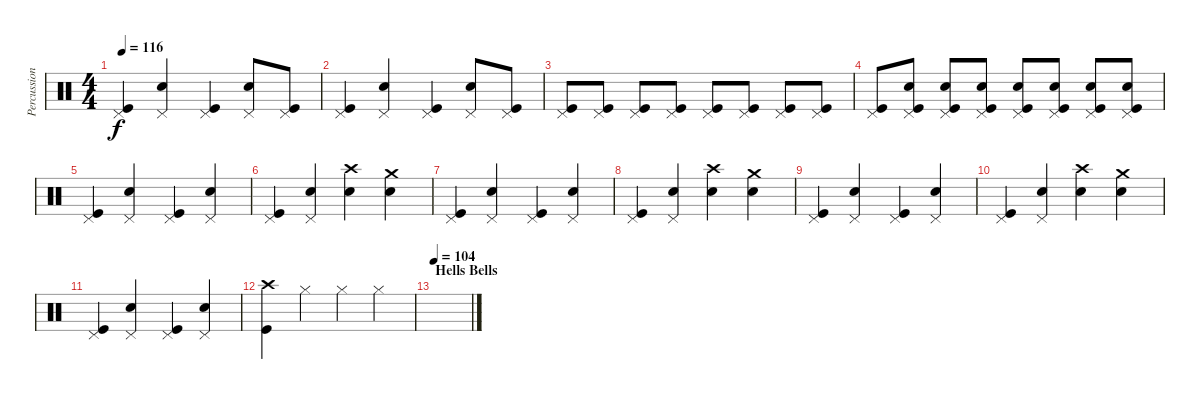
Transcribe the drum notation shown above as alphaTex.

\track ("Percussions" "Percussion") {instrument percussion}
\staff {score}
\articulation defaults
\ts (4 4)
\tempo 116
\clef neutral
\ks c
("Pedal Hi-Hat (hit)" "Kick (hit)").4{dy f} ("Pedal Hi-Hat (hit)" "Electric Snare (hit)").4 ("Pedal Hi-Hat (hit)" "Kick (hit)").4 ("Pedal Hi-Hat (hit)" "Electric Snare (hit)").8 ("Pedal Hi-Hat (hit)" "Kick (hit)").8 |
("Pedal Hi-Hat (hit)" "Kick (hit)").4 ("Pedal Hi-Hat (hit)" "Electric Snare (hit)").4 ("Pedal Hi-Hat (hit)" "Kick (hit)").4 ("Pedal Hi-Hat (hit)" "Electric Snare (hit)").8 ("Pedal Hi-Hat (hit)" "Kick (hit)").8 |
("Kick (hit)" "Pedal Hi-Hat (hit)").8 ("Kick (hit)" "Pedal Hi-Hat (hit)").8 ("Kick (hit)" "Pedal Hi-Hat (hit)").8 ("Kick (hit)" "Pedal Hi-Hat (hit)").8 ("Kick (hit)" "Pedal Hi-Hat (hit)").8 ("Pedal Hi-Hat (hit)" "Kick (hit)").8 ("Kick (hit)" "Pedal Hi-Hat (hit)").8 ("Pedal Hi-Hat (hit)" "Kick (hit)").8 |
("Pedal Hi-Hat (hit)" "Kick (hit)").8 ("Snare (hit) 2" "Pedal Hi-Hat (hit)" "Kick (hit)").8 ("Snare (hit) 2" "Pedal Hi-Hat (hit)" "Kick (hit)").8 ("Snare (hit) 2" "Pedal Hi-Hat (hit)" "Kick (hit)").8 ("Snare (hit) 2" "Pedal Hi-Hat (hit)" "Kick (hit)").8 ("Snare (hit) 2" "Pedal Hi-Hat (hit)" "Kick (hit)").8 ("Snare (hit) 2" "Pedal Hi-Hat (hit)" "Kick (hit)").8 ("Snare (hit) 2" "Pedal Hi-Hat (hit)" "Kick (hit)").8 |
("Pedal Hi-Hat (hit)" "Kick (hit)").4 ("Pedal Hi-Hat (hit)" "Electric Snare (hit)").4 ("Pedal Hi-Hat (hit)" "Kick (hit)").4 ("Pedal Hi-Hat (hit)" "Electric Snare (hit)").4 |
("Pedal Hi-Hat (hit)" "Kick (hit)").4 ("Pedal Hi-Hat (hit)" "Electric Snare (hit)").4 ("Electric Snare (hit)" "Crash high (hit)").4 ("Crash medium (hit)" "Electric Snare (hit)").4 |
("Pedal Hi-Hat (hit)" "Kick (hit)").4 ("Pedal Hi-Hat (hit)" "Electric Snare (hit)").4 ("Pedal Hi-Hat (hit)" "Kick (hit)").4 ("Pedal Hi-Hat (hit)" "Electric Snare (hit)").4 |
("Pedal Hi-Hat (hit)" "Kick (hit)").4 ("Pedal Hi-Hat (hit)" "Electric Snare (hit)").4 ("Electric Snare (hit)" "Crash high (hit)").4 ("Crash medium (hit)" "Electric Snare (hit)").4 |
("Pedal Hi-Hat (hit)" "Kick (hit)").4 ("Pedal Hi-Hat (hit)" "Electric Snare (hit)").4 ("Pedal Hi-Hat (hit)" "Kick (hit)").4 ("Pedal Hi-Hat (hit)" "Electric Snare (hit)").4 |
("Pedal Hi-Hat (hit)" "Kick (hit)").4 ("Pedal Hi-Hat (hit)" "Electric Snare (hit)").4 ("Electric Snare (hit)" "Crash high (hit)").4 ("Crash medium (hit)" "Electric Snare (hit)").4 |
("Pedal Hi-Hat (hit)" "Kick (hit)").4 ("Pedal Hi-Hat (hit)" "Electric Snare (hit)").4 ("Pedal Hi-Hat (hit)" "Kick (hit)").4 ("Pedal Hi-Hat (hit)" "Electric Snare (hit)").4 |
("Crash high (hit)" "Kick (hit)").4 "Hi-Hat (closed)".4 "Hi-Hat (closed)".4 "Hi-Hat (closed)".4 |
\section ("" "Hells Bells")
\tempo 104
